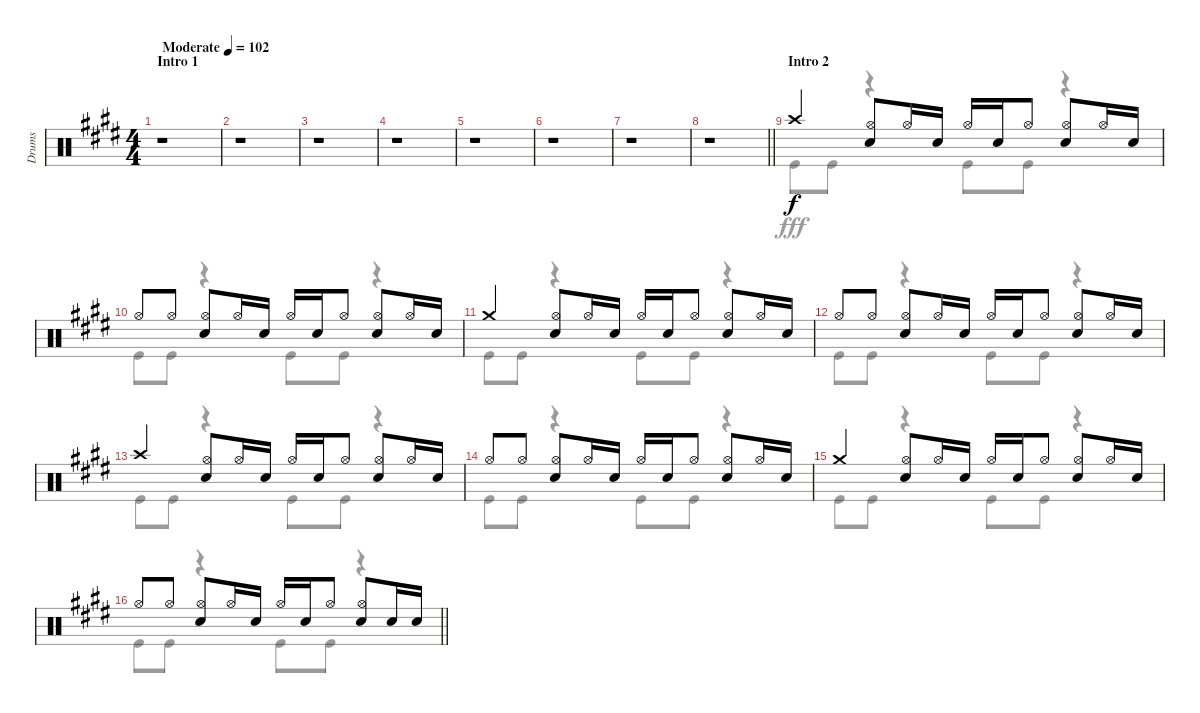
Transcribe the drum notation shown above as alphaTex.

\track ("Drums" "Drums") {instrument percussion}
\staff {score}
\articulation defaults
\voice
\ts (4 4)
\section ("" "Intro 1")
\tempo (102 "Moderate")
\clef neutral
\ks e
r.1{dy f} |
r.1 |
r.1 |
r.1 |
r.1 |
r.1 |
r.1 |
\barLineRight lightlight
r.1 |
\section ("" "Intro 2")
"Crash high (hit)".4 ("Hi-Hat (open)" "Snare (hit) 2").8 "Hi-Hat (open)".16 "Snare (hit) 2".16 "Hi-Hat (open)".16 "Snare (hit) 2".16 "Hi-Hat (open)".8 ("Hi-Hat (open)" "Snare (hit) 2").8 "Hi-Hat (open)".16 "Snare (hit) 2".16 |
"Hi-Hat (open)".8 "Hi-Hat (open)".8 ("Hi-Hat (open)" "Snare (hit) 2").8 "Hi-Hat (open)".16 "Snare (hit) 2".16 "Hi-Hat (open)".16 "Snare (hit) 2".16 "Hi-Hat (open)".8 ("Hi-Hat (open)" "Snare (hit) 2").8 "Hi-Hat (open)".16 "Snare (hit) 2".16 |
"Crash medium (hit)".4 ("Hi-Hat (open)" "Snare (hit) 2").8 "Hi-Hat (open)".16 "Snare (hit) 2".16 "Hi-Hat (open)".16 "Snare (hit) 2".16 "Hi-Hat (open)".8 ("Hi-Hat (open)" "Snare (hit) 2").8 "Hi-Hat (open)".16 "Snare (hit) 2".16 |
"Hi-Hat (open)".8 "Hi-Hat (open)".8 ("Hi-Hat (open)" "Snare (hit) 2").8 "Hi-Hat (open)".16 "Snare (hit) 2".16 "Hi-Hat (open)".16 "Snare (hit) 2".16 "Hi-Hat (open)".8 ("Hi-Hat (open)" "Snare (hit) 2").8 "Hi-Hat (open)".16 "Snare (hit) 2".16 |
"Crash high (hit)".4 ("Hi-Hat (open)" "Snare (hit) 2").8 "Hi-Hat (open)".16 "Snare (hit) 2".16 "Hi-Hat (open)".16 "Snare (hit) 2".16 "Hi-Hat (open)".8 ("Hi-Hat (open)" "Snare (hit) 2").8 "Hi-Hat (open)".16 "Snare (hit) 2".16 |
"Hi-Hat (open)".8 "Hi-Hat (open)".8 ("Hi-Hat (open)" "Snare (hit) 2").8 "Hi-Hat (open)".16 "Snare (hit) 2".16 "Hi-Hat (open)".16 "Snare (hit) 2".16 "Hi-Hat (open)".8 ("Hi-Hat (open)" "Snare (hit) 2").8 "Hi-Hat (open)".16 "Snare (hit) 2".16 |
"Crash medium (hit)".4 ("Hi-Hat (open)" "Snare (hit) 2").8 "Hi-Hat (open)".16 "Snare (hit) 2".16 "Hi-Hat (open)".16 "Snare (hit) 2".16 "Hi-Hat (open)".8 ("Hi-Hat (open)" "Snare (hit) 2").8 "Hi-Hat (open)".16 "Snare (hit) 2".16 |
\barLineRight lightlight "Hi-Hat (open)".8 "Hi-Hat (open)".8
("Hi-Hat (open)" "Snare (hit) 2").8 "Hi-Hat (open)".16 "Snare (hit) 2".16 "Hi-Hat (open)".16 "Snare (hit) 2".16 "Hi-Hat (open)".8 ("Hi-Hat (open)" "Snare (hit) 2").8 "Snare (hit) 2".16 "Snare (hit) 2".16
\voice
\clef neutral
\ottava regular
\simile none
\ks e
r.1{dy fff} |
r.1 |
r.1 |
r.1 |
r.1 |
r.1 |
r.1 |
\barLineRight lightlight
r.1 |
"Kick (hit)".8 "Kick (hit)".8 r.4 "Kick (hit)".8 "Kick (hit)".8 r.4 |
"Kick (hit)".8 "Kick (hit)".8 r.4 "Kick (hit)".8 "Kick (hit)".8 r.4 |
"Kick (hit)".8 "Kick (hit)".8 r.4 "Kick (hit)".8 "Kick (hit)".8 r.4 |
"Kick (hit)".8 "Kick (hit)".8 r.4 "Kick (hit)".8 "Kick (hit)".8 r.4 |
"Kick (hit)".8 "Kick (hit)".8 r.4 "Kick (hit)".8 "Kick (hit)".8 r.4 |
"Kick (hit)".8 "Kick (hit)".8 r.4 "Kick (hit)".8 "Kick (hit)".8 r.4 |
"Kick (hit)".8 "Kick (hit)".8 r.4 "Kick (hit)".8 "Kick (hit)".8 r.4 |
\barLineRight lightlight "Kick (hit)".8 "Kick (hit)".8
r.4 "Kick (hit)".8 "Kick (hit)".8 r.4
